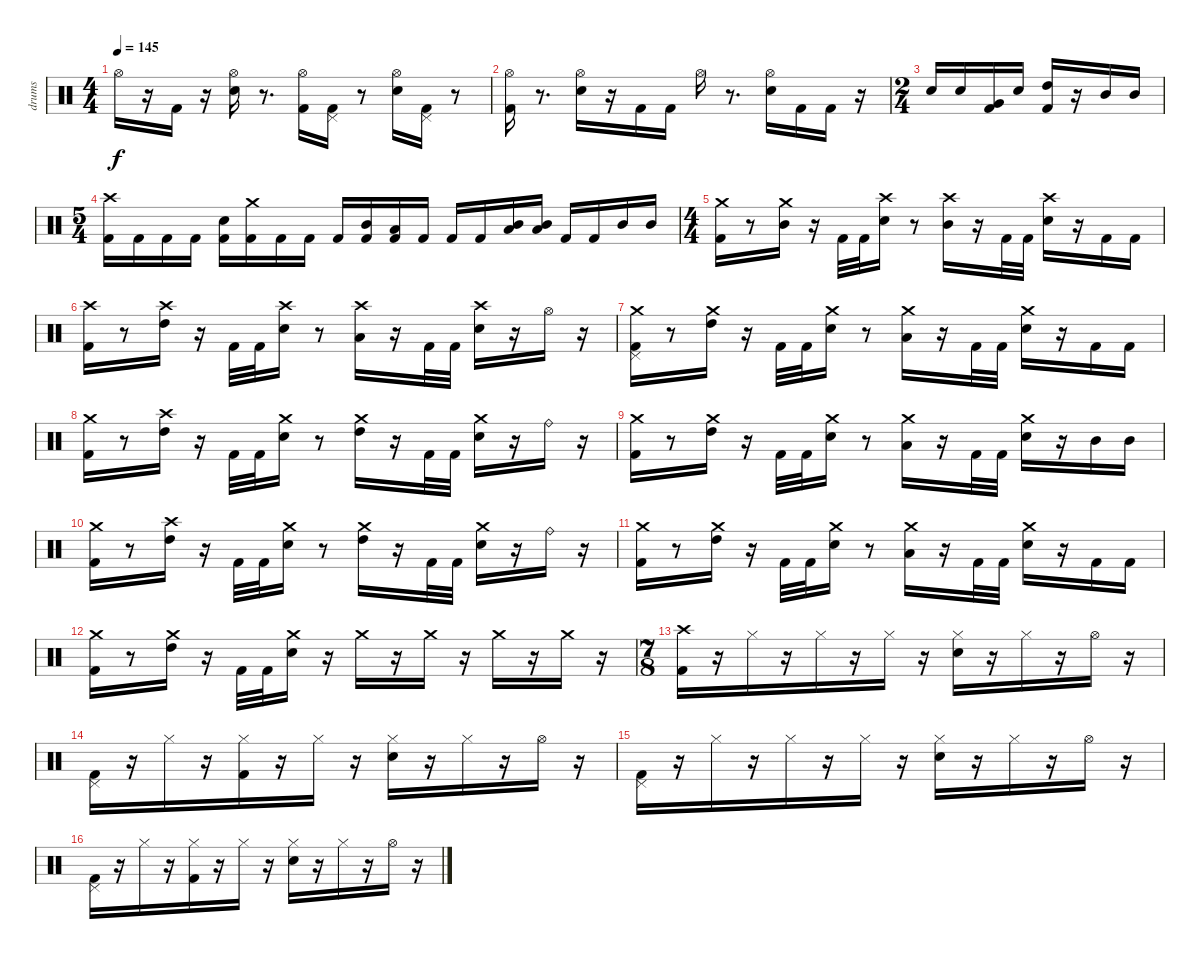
\track ("drums" "drums") {instrument percussion}
\staff {score}
\articulation defaults
\ts (4 4)
\tempo 145
\clef neutral
\ks c "Hi-Hat (open)".16{dy f}
r.16 "Kick (hit) 2".16 r.16 ("Snare (hit) 2" "Hi-Hat (open)").16 r.8{d} ("Kick (hit) 2" "Hi-Hat (open)").16 ("Kick (hit) 2" "Pedal Hi-Hat (hit)").16 r.8 ("Snare (hit) 2" "Hi-Hat (open)").16 ("Kick (hit) 2" "Pedal Hi-Hat (hit)").16 r.8 |
("Kick (hit) 2" "Hi-Hat (open)").16 r.8{d} ("Snare (hit) 2" "Hi-Hat (open)").16 r.16 "Kick (hit) 2".16 "Kick (hit) 2".16 "Hi-Hat (open)".16 r.8{d} ("Snare (hit) 2" "Hi-Hat (open)").16 "Kick (hit) 2".16 "Kick (hit) 2".16 r.16 |
\ts (2 4)
"Snare (hit) 2".16 "Snare (hit) 2".16 ("Kick (hit) 2" "Very Low Tom (hit)").16 "Snare (hit) 2".16 ("Kick (hit) 2" "High Tom (hit)").16 r.16 "Mid Tom (hit)".16 "Mid Tom (hit)".16 |
\ts (5 4)
("Kick (hit) 2" "Crash high (hit)").16 "Kick (hit) 2".16 "Kick (hit) 2".16 "Kick (hit) 2".16 ("Kick (hit) 2" "Snare (hit) 2").16 ("Kick (hit) 2" "Crash medium (hit)").16 "Kick (hit) 2".16 "Kick (hit) 2".16 "Kick (hit) 2".16 ("Kick (hit) 2" "Mid Tom (hit)").16 ("Kick (hit) 2" "Low Tom (hit)").16 "Kick (hit) 2".16 "Kick (hit) 2".16 "Kick (hit) 2".16 ("Low Tom (hit)" "Mid Tom (hit)").16 ("Low Tom (hit)" "Mid Tom (hit)").16 "Kick (hit) 2".16 "Kick (hit) 2".16 "Mid Tom (hit)".16 "Mid Tom (hit)".16 |
\ts (4 4)
("Kick (hit) 2" "Crash medium (hit)").16 r.8 ("Mid Tom (hit)" "Crash medium (hit)").16 r.16 "Kick (hit) 2".32 "Kick (hit) 2".32 ("Snare (hit) 2" "Crash high (hit)").16 r.8 ("Mid Tom (hit)" "Crash high (hit)").16 r.16 "Kick (hit) 2".32 "Kick (hit) 2".32 ("Snare (hit) 2" "Crash high (hit)").16 r.16 "Kick (hit) 2".16 "Kick (hit) 2".16 |
("Kick (hit) 2" "Crash high (hit)").16 r.8 ("High Tom (hit)" "Crash high (hit)").16 r.16 "Kick (hit) 2".32 "Kick (hit) 2".32 ("Snare (hit) 2" "Crash high (hit)").16 r.8 ("Low Tom (hit)" "Crash high (hit)").16 r.16 "Kick (hit) 2".32 "Kick (hit) 2".32 ("Snare (hit) 2" "Crash high (hit)").16 r.16 "Hi-Hat (open)".16 r.16 |
("Kick (hit) 2" "Pedal Hi-Hat (hit)" "Crash medium (hit)").16 r.8 ("High Tom (hit)" "Crash medium (hit)").16 r.16 "Kick (hit) 2".32 "Kick (hit) 2".32 ("Snare (hit) 2" "Crash medium (hit)").16 r.8 ("Low Tom (hit)" "Crash medium (hit)").16 r.16 "Kick (hit) 2".32 "Kick (hit) 2".32 ("Snare (hit) 2" "Crash medium (hit)").16 r.16 "Kick (hit) 2".16 "Kick (hit) 2".16 |
("Kick (hit) 2" "Crash medium (hit)").16 r.8 ("High Tom (hit)" "Crash high (hit)").16 r.16 "Kick (hit) 2".32 "Kick (hit) 2".32 ("Snare (hit) 2" "Crash medium (hit)").16 r.8 ("High Tom (hit)" "Crash medium (hit)").16 r.16 "Kick (hit) 2".32 "Kick (hit) 2".32 ("Snare (hit) 2" "Crash medium (hit)").16 r.16 "Ride (bell)".16 r.16 |
("Kick (hit) 2" "Crash medium (hit)").16 r.8 ("High Tom (hit)" "Crash medium (hit)").16 r.16 "Kick (hit) 2".32 "Kick (hit) 2".32 ("Snare (hit) 2" "Crash medium (hit)").16 r.8 ("Low Tom (hit)" "Crash medium (hit)").16 r.16 "Kick (hit) 2".32 "Kick (hit) 2".32 ("Snare (hit) 2" "Crash medium (hit)").16 r.16 "Mid Tom (hit)".16 "Mid Tom (hit)".16 |
("Kick (hit) 2" "Crash medium (hit)").16 r.8 ("High Tom (hit)" "Crash high (hit)").16 r.16 "Kick (hit) 2".32 "Kick (hit) 2".32 ("Snare (hit) 2" "Crash medium (hit)").16 r.8 ("High Tom (hit)" "Crash medium (hit)").16 r.16 "Kick (hit) 2".32 "Kick (hit) 2".32 ("Snare (hit) 2" "Crash medium (hit)").16 r.16 "Ride (bell)".16 r.16 |
("Kick (hit) 2" "Crash medium (hit)").16 r.8 ("High Tom (hit)" "Crash medium (hit)").16 r.16 "Kick (hit) 2".32 "Kick (hit) 2".32 ("Snare (hit) 2" "Crash medium (hit)").16 r.8 ("Low Tom (hit)" "Crash medium (hit)").16 r.16 "Kick (hit) 2".32 "Kick (hit) 2".32 ("Snare (hit) 2" "Crash medium (hit)").16 r.16 "Kick (hit) 2".16 "Kick (hit) 2".16 |
("Kick (hit) 2" "Crash medium (hit)").16 r.8 ("High Tom (hit)" "Crash medium (hit)").16 r.16 "Kick (hit) 2".32 "Kick (hit) 2".32 ("Snare (hit) 2" "Crash medium (hit)").16 r.16 "Crash medium (hit)".16 r.16 "Crash medium (hit)".16 r.16 "Crash medium (hit)".16 r.16 "Crash medium (hit)".16 r.16 |
\ts (7 8)
("Kick (hit) 2" "Crash high (hit)").16 r.16 "Hi-Hat (closed)".16 r.16 "Hi-Hat (closed)".16 r.16 "Hi-Hat (closed)".16 r.16 ("Snare (hit) 2" "Hi-Hat (closed)").16 r.16 "Hi-Hat (closed)".16 r.16 "Hi-Hat (open)".16 r.16 |
("Kick (hit) 2" "Pedal Hi-Hat (hit)").16 r.16 "Hi-Hat (closed)".16 r.16 ("Kick (hit) 2" "Hi-Hat (closed)").16 r.16 "Hi-Hat (closed)".16 r.16 ("Snare (hit) 2" "Hi-Hat (closed)").16 r.16 "Hi-Hat (closed)".16 r.16 "Hi-Hat (open)".16 r.16 |
("Kick (hit) 2" "Pedal Hi-Hat (hit)").16 r.16 "Hi-Hat (closed)".16 r.16 "Hi-Hat (closed)".16 r.16 "Hi-Hat (closed)".16 r.16 ("Snare (hit) 2" "Hi-Hat (closed)").16 r.16 "Hi-Hat (closed)".16 r.16 "Hi-Hat (open)".16 r.16 |
("Kick (hit) 2" "Pedal Hi-Hat (hit)").16 r.16 "Hi-Hat (closed)".16 r.16 ("Kick (hit) 2" "Hi-Hat (closed)").16 r.16 "Hi-Hat (closed)".16 r.16 ("Snare (hit) 2" "Hi-Hat (closed)").16 r.16 "Hi-Hat (closed)".16 r.16 "Hi-Hat (open)".16 r.16
